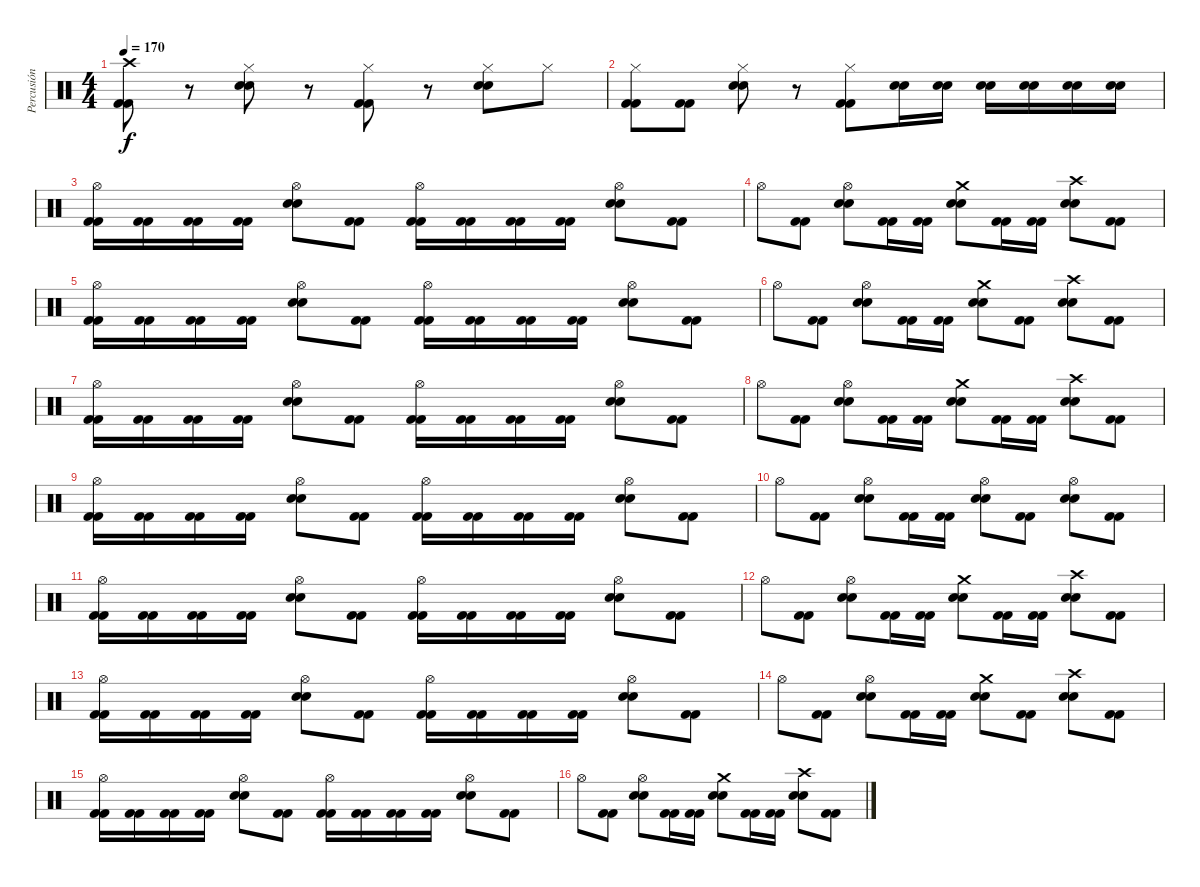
\track ("Percusión" "Percusión") {instrument percussion}
\staff {score}
\articulation defaults
\ts (4 4)
\tempo 170
\clef neutral
\ks c
("Crash high (hit)" "Kick (hit) 2" "Kick (hit) 2").8{dy f} r.8 ("Hi-Hat (closed)" "Electric Snare (hit)" "Electric Snare (hit)").8 r.8 ("Hi-Hat (closed)" "Kick (hit) 2" "Kick (hit) 2").8 r.8 ("Hi-Hat (closed)" "Electric Snare (hit)" "Electric Snare (hit)").8 "Hi-Hat (closed)".8 |
("Hi-Hat (closed)" "Kick (hit) 2" "Kick (hit) 2").8 ("Kick (hit) 2" "Kick (hit) 2").8 ("Hi-Hat (closed)" "Electric Snare (hit)" "Electric Snare (hit)").8 r.8 ("Hi-Hat (closed)" "Kick (hit) 2" "Kick (hit) 2").8 ("Electric Snare (hit)" "Electric Snare (hit)").16 ("Electric Snare (hit)" "Electric Snare (hit)").16 ("Electric Snare (hit)" "Electric Snare (hit)").16 ("Electric Snare (hit)" "Electric Snare (hit)").16 ("Electric Snare (hit)" "Electric Snare (hit)").16 ("Electric Snare (hit)" "Electric Snare (hit)").16 |
("Hi-Hat (open)" "Kick (hit) 2" "Kick (hit) 2").16 ("Kick (hit) 2" "Kick (hit) 2").16 ("Kick (hit) 2" "Kick (hit) 2").16 ("Kick (hit) 2" "Kick (hit) 2").16 ("Hi-Hat (open)" "Electric Snare (hit)" "Electric Snare (hit)").8 ("Kick (hit) 2" "Kick (hit) 2").8 ("Hi-Hat (open)" "Kick (hit) 2" "Kick (hit) 2").16 ("Kick (hit) 2" "Kick (hit) 2").16 ("Kick (hit) 2" "Kick (hit) 2").16 ("Kick (hit) 2" "Kick (hit) 2").16 ("Hi-Hat (open)" "Electric Snare (hit)" "Electric Snare (hit)").8 ("Kick (hit) 2" "Kick (hit) 2").8 |
"Hi-Hat (open)".8 ("Kick (hit) 2" "Kick (hit) 2").8 ("Hi-Hat (open)" "Electric Snare (hit)" "Electric Snare (hit)").8 ("Kick (hit) 2" "Kick (hit) 2").16 ("Kick (hit) 2" "Kick (hit) 2").16 ("Crash medium (hit)" "Electric Snare (hit)" "Electric Snare (hit)").8 ("Kick (hit) 2" "Kick (hit) 2").16 ("Kick (hit) 2" "Kick (hit) 2").16 ("Crash high (hit)" "Electric Snare (hit)" "Electric Snare (hit)").8 ("Kick (hit) 2" "Kick (hit) 2").8 |
("Hi-Hat (open)" "Kick (hit) 2" "Kick (hit) 2").16 ("Kick (hit) 2" "Kick (hit) 2").16 ("Kick (hit) 2" "Kick (hit) 2").16 ("Kick (hit) 2" "Kick (hit) 2").16 ("Hi-Hat (open)" "Electric Snare (hit)" "Electric Snare (hit)").8 ("Kick (hit) 2" "Kick (hit) 2").8 ("Hi-Hat (open)" "Kick (hit) 2" "Kick (hit) 2").16 ("Kick (hit) 2" "Kick (hit) 2").16 ("Kick (hit) 2" "Kick (hit) 2").16 ("Kick (hit) 2" "Kick (hit) 2").16 ("Hi-Hat (open)" "Electric Snare (hit)" "Electric Snare (hit)").8 ("Kick (hit) 2" "Kick (hit) 2").8 |
"Hi-Hat (open)".8 ("Kick (hit) 2" "Kick (hit) 2").8 ("Hi-Hat (open)" "Electric Snare (hit)" "Electric Snare (hit)").8 ("Kick (hit) 2" "Kick (hit) 2").16 ("Kick (hit) 2" "Kick (hit) 2").16 ("Crash medium (hit)" "Electric Snare (hit)" "Electric Snare (hit)").8 ("Kick (hit) 2" "Kick (hit) 2").8 ("Crash high (hit)" "Electric Snare (hit)" "Electric Snare (hit)").8 ("Kick (hit) 2" "Kick (hit) 2").8 |
("Hi-Hat (open)" "Kick (hit) 2" "Kick (hit) 2").16 ("Kick (hit) 2" "Kick (hit) 2").16 ("Kick (hit) 2" "Kick (hit) 2").16 ("Kick (hit) 2" "Kick (hit) 2").16 ("Hi-Hat (open)" "Electric Snare (hit)" "Electric Snare (hit)").8 ("Kick (hit) 2" "Kick (hit) 2").8 ("Hi-Hat (open)" "Kick (hit) 2" "Kick (hit) 2").16 ("Kick (hit) 2" "Kick (hit) 2").16 ("Kick (hit) 2" "Kick (hit) 2").16 ("Kick (hit) 2" "Kick (hit) 2").16 ("Hi-Hat (open)" "Electric Snare (hit)" "Electric Snare (hit)").8 ("Kick (hit) 2" "Kick (hit) 2").8 |
"Hi-Hat (open)".8 ("Kick (hit) 2" "Kick (hit) 2").8 ("Hi-Hat (open)" "Electric Snare (hit)" "Electric Snare (hit)").8 ("Kick (hit) 2" "Kick (hit) 2").16 ("Kick (hit) 2" "Kick (hit) 2").16 ("Crash medium (hit)" "Electric Snare (hit)" "Electric Snare (hit)").8 ("Kick (hit) 2" "Kick (hit) 2").16 ("Kick (hit) 2" "Kick (hit) 2").16 ("Crash high (hit)" "Electric Snare (hit)" "Electric Snare (hit)").8 ("Kick (hit) 2" "Kick (hit) 2").8 |
("Hi-Hat (open)" "Kick (hit) 2" "Kick (hit) 2").16 ("Kick (hit) 2" "Kick (hit) 2").16 ("Kick (hit) 2" "Kick (hit) 2").16 ("Kick (hit) 2" "Kick (hit) 2").16 ("Hi-Hat (open)" "Electric Snare (hit)" "Electric Snare (hit)").8 ("Kick (hit) 2" "Kick (hit) 2").8 ("Hi-Hat (open)" "Kick (hit) 2" "Kick (hit) 2").16 ("Kick (hit) 2" "Kick (hit) 2").16 ("Kick (hit) 2" "Kick (hit) 2").16 ("Kick (hit) 2" "Kick (hit) 2").16 ("Hi-Hat (open)" "Electric Snare (hit)" "Electric Snare (hit)").8 ("Kick (hit) 2" "Kick (hit) 2").8 |
"Hi-Hat (open)".8 ("Kick (hit) 2" "Kick (hit) 2").8 ("Hi-Hat (open)" "Electric Snare (hit)" "Electric Snare (hit)").8 ("Kick (hit) 2" "Kick (hit) 2").16 ("Kick (hit) 2" "Kick (hit) 2").16 ("Hi-Hat (open)" "Electric Snare (hit)" "Electric Snare (hit)").8 ("Kick (hit) 2" "Kick (hit) 2").8 ("Hi-Hat (open)" "Electric Snare (hit)" "Electric Snare (hit)").8 ("Kick (hit) 2" "Kick (hit) 2").8 |
("Hi-Hat (open)" "Kick (hit) 2" "Kick (hit) 2").16 ("Kick (hit) 2" "Kick (hit) 2").16 ("Kick (hit) 2" "Kick (hit) 2").16 ("Kick (hit) 2" "Kick (hit) 2").16 ("Hi-Hat (open)" "Electric Snare (hit)" "Electric Snare (hit)").8 ("Kick (hit) 2" "Kick (hit) 2").8 ("Hi-Hat (open)" "Kick (hit) 2" "Kick (hit) 2").16 ("Kick (hit) 2" "Kick (hit) 2").16 ("Kick (hit) 2" "Kick (hit) 2").16 ("Kick (hit) 2" "Kick (hit) 2").16 ("Hi-Hat (open)" "Electric Snare (hit)" "Electric Snare (hit)").8 ("Kick (hit) 2" "Kick (hit) 2").8 |
"Hi-Hat (open)".8 ("Kick (hit) 2" "Kick (hit) 2").8 ("Hi-Hat (open)" "Electric Snare (hit)" "Electric Snare (hit)").8 ("Kick (hit) 2" "Kick (hit) 2").16 ("Kick (hit) 2" "Kick (hit) 2").16 ("Crash medium (hit)" "Electric Snare (hit)" "Electric Snare (hit)").8 ("Kick (hit) 2" "Kick (hit) 2").16 ("Kick (hit) 2" "Kick (hit) 2").16 ("Crash high (hit)" "Electric Snare (hit)" "Electric Snare (hit)").8 ("Kick (hit) 2" "Kick (hit) 2").8 |
("Hi-Hat (open)" "Kick (hit) 2" "Kick (hit) 2").16 ("Kick (hit) 2" "Kick (hit) 2").16 ("Kick (hit) 2" "Kick (hit) 2").16 ("Kick (hit) 2" "Kick (hit) 2").16 ("Hi-Hat (open)" "Electric Snare (hit)" "Electric Snare (hit)").8 ("Kick (hit) 2" "Kick (hit) 2").8 ("Hi-Hat (open)" "Kick (hit) 2" "Kick (hit) 2").16 ("Kick (hit) 2" "Kick (hit) 2").16 ("Kick (hit) 2" "Kick (hit) 2").16 ("Kick (hit) 2" "Kick (hit) 2").16 ("Hi-Hat (open)" "Electric Snare (hit)" "Electric Snare (hit)").8 ("Kick (hit) 2" "Kick (hit) 2").8 |
"Hi-Hat (open)".8 ("Kick (hit) 2" "Kick (hit) 2").8 ("Hi-Hat (open)" "Electric Snare (hit)" "Electric Snare (hit)").8 ("Kick (hit) 2" "Kick (hit) 2").16 ("Kick (hit) 2" "Kick (hit) 2").16 ("Crash medium (hit)" "Electric Snare (hit)" "Electric Snare (hit)").8 ("Kick (hit) 2" "Kick (hit) 2").8 ("Crash high (hit)" "Electric Snare (hit)" "Electric Snare (hit)").8 ("Kick (hit) 2" "Kick (hit) 2").8 |
("Hi-Hat (open)" "Kick (hit) 2" "Kick (hit) 2").16 ("Kick (hit) 2" "Kick (hit) 2").16 ("Kick (hit) 2" "Kick (hit) 2").16 ("Kick (hit) 2" "Kick (hit) 2").16 ("Hi-Hat (open)" "Electric Snare (hit)" "Electric Snare (hit)").8 ("Kick (hit) 2" "Kick (hit) 2").8 ("Hi-Hat (open)" "Kick (hit) 2" "Kick (hit) 2").16 ("Kick (hit) 2" "Kick (hit) 2").16 ("Kick (hit) 2" "Kick (hit) 2").16 ("Kick (hit) 2" "Kick (hit) 2").16 ("Hi-Hat (open)" "Electric Snare (hit)" "Electric Snare (hit)").8 ("Kick (hit) 2" "Kick (hit) 2").8 |
"Hi-Hat (open)".8 ("Kick (hit) 2" "Kick (hit) 2").8 ("Hi-Hat (open)" "Electric Snare (hit)" "Electric Snare (hit)").8 ("Kick (hit) 2" "Kick (hit) 2").16 ("Kick (hit) 2" "Kick (hit) 2").16 ("Crash medium (hit)" "Electric Snare (hit)" "Electric Snare (hit)").8 ("Kick (hit) 2" "Kick (hit) 2").16 ("Kick (hit) 2" "Kick (hit) 2").16 ("Crash high (hit)" "Electric Snare (hit)" "Electric Snare (hit)").8 ("Kick (hit) 2" "Kick (hit) 2").8
